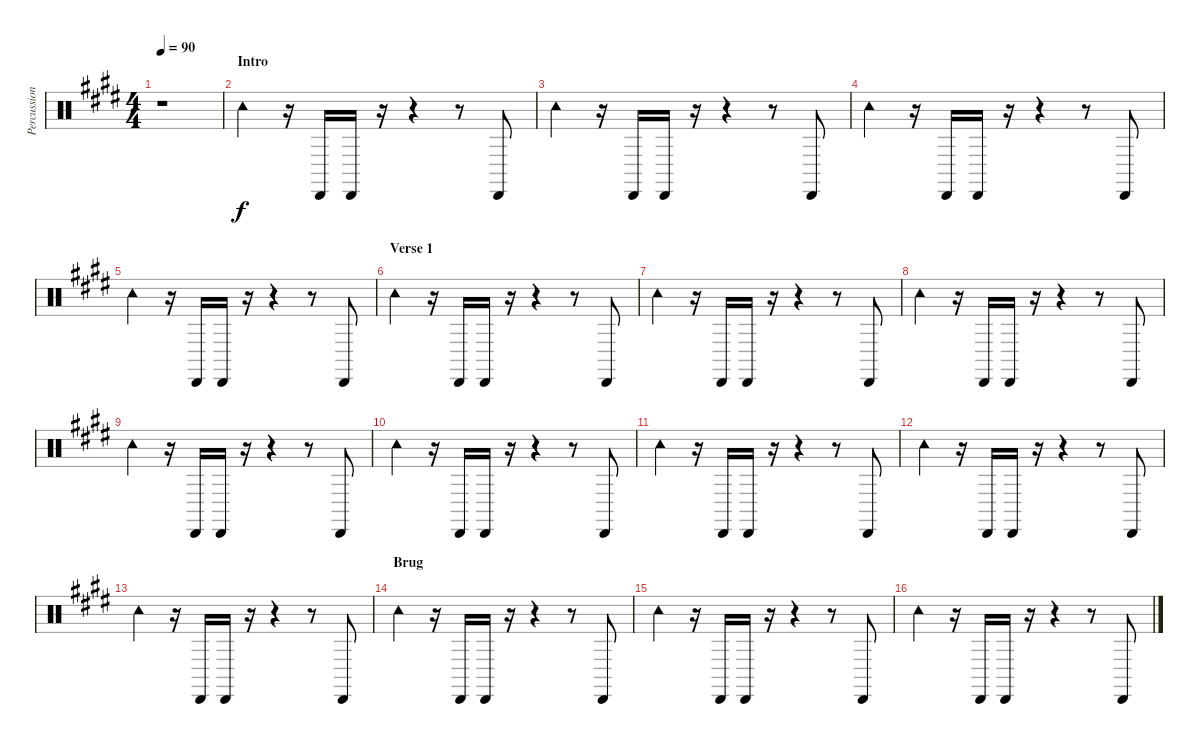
\track ("Percussion" "Percussion") {instrument percussion}
\staff {score}
\articulation defaults
\ts (4 4)
\tempo 90
\clef neutral
\ks e
r.1{dy f} |
\section ("" "Intro")
"Tambourine (hit)".4 r.16 "Cabasa (hit)".16 "Cabasa (hit)".16 r.16 r.4 r.8 "Cabasa (hit)".8 |
"Tambourine (hit)".4 r.16 "Cabasa (hit)".16 "Cabasa (hit)".16 r.16 r.4 r.8 "Cabasa (hit)".8 |
"Tambourine (hit)".4 r.16 "Cabasa (hit)".16 "Cabasa (hit)".16 r.16 r.4 r.8 "Cabasa (hit)".8 |
"Tambourine (hit)".4 r.16 "Cabasa (hit)".16 "Cabasa (hit)".16 r.16 r.4 r.8 "Cabasa (hit)".8 |
\section ("" "Verse 1")
"Tambourine (hit)".4 r.16 "Cabasa (hit)".16 "Cabasa (hit)".16 r.16 r.4 r.8 "Cabasa (hit)".8 |
"Tambourine (hit)".4 r.16 "Cabasa (hit)".16 "Cabasa (hit)".16 r.16 r.4 r.8 "Cabasa (hit)".8 |
"Tambourine (hit)".4 r.16 "Cabasa (hit)".16 "Cabasa (hit)".16 r.16 r.4 r.8 "Cabasa (hit)".8 |
"Tambourine (hit)".4 r.16 "Cabasa (hit)".16 "Cabasa (hit)".16 r.16 r.4 r.8 "Cabasa (hit)".8 |
"Tambourine (hit)".4 r.16 "Cabasa (hit)".16 "Cabasa (hit)".16 r.16 r.4 r.8 "Cabasa (hit)".8 |
"Tambourine (hit)".4 r.16 "Cabasa (hit)".16 "Cabasa (hit)".16 r.16 r.4 r.8 "Cabasa (hit)".8 |
"Tambourine (hit)".4 r.16 "Cabasa (hit)".16 "Cabasa (hit)".16 r.16 r.4 r.8 "Cabasa (hit)".8 |
"Tambourine (hit)".4 r.16 "Cabasa (hit)".16 "Cabasa (hit)".16 r.16 r.4 r.8 "Cabasa (hit)".8 |
\section ("" "Brug")
"Tambourine (hit)".4 r.16 "Cabasa (hit)".16 "Cabasa (hit)".16 r.16 r.4 r.8 "Cabasa (hit)".8 |
"Tambourine (hit)".4 r.16 "Cabasa (hit)".16 "Cabasa (hit)".16 r.16 r.4 r.8 "Cabasa (hit)".8 |
"Tambourine (hit)".4 r.16 "Cabasa (hit)".16 "Cabasa (hit)".16 r.16 r.4 r.8 "Cabasa (hit)".8
